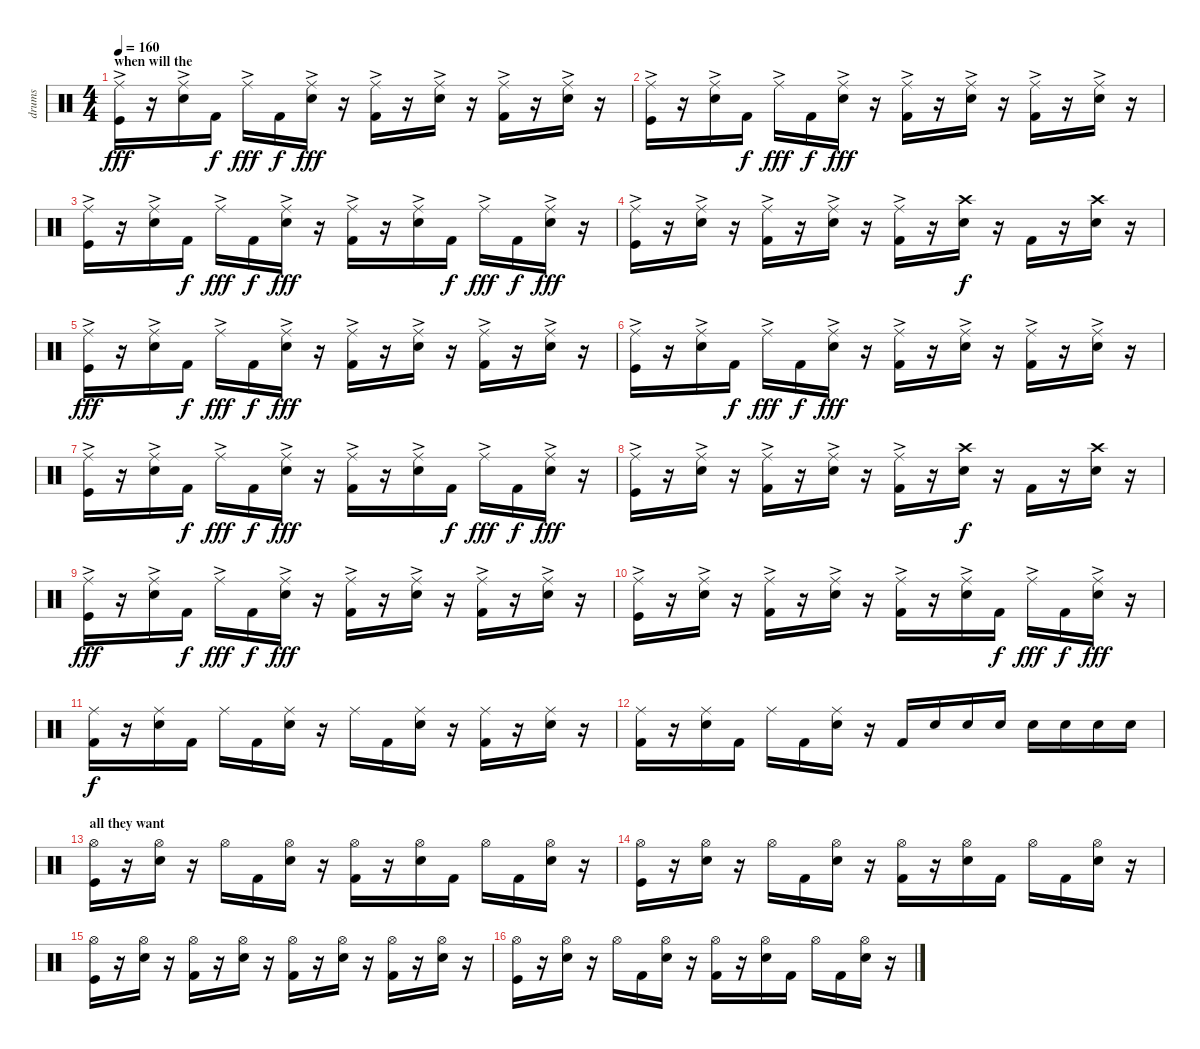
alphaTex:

\track ("drums" "drums") {instrument percussion}
\staff {score}
\articulation defaults
\ts (4 4)
\section ("" "when will the")
\tempo 160
\clef neutral
\ks c
("Ride (middle)"{ac} "Kick (hit)").16{dy fff} r.16 ("Ride (middle)"{ac} "Snare (hit) 2").16 "Kick (hit) 2".16{dy f} "Ride (middle)"{ac}.16{dy fff} "Kick (hit) 2".16{dy f} ("Ride (middle)"{ac} "Snare (hit) 2").16{dy fff} r.16 ("Ride (middle)"{ac} "Kick (hit) 2").16 r.16 ("Ride (middle)"{ac} "Snare (hit) 2").16 r.16 ("Ride (middle)"{ac} "Kick (hit) 2").16 r.16 ("Ride (middle)"{ac} "Snare (hit) 2").16 r.16 |
("Ride (middle)"{ac} "Kick (hit)").16 r.16 ("Ride (middle)"{ac} "Snare (hit) 2").16 "Kick (hit) 2".16{dy f} "Ride (middle)"{ac}.16{dy fff} "Kick (hit) 2".16{dy f} ("Ride (middle)"{ac} "Snare (hit) 2").16{dy fff} r.16 ("Ride (middle)"{ac} "Kick (hit) 2").16 r.16 ("Ride (middle)"{ac} "Snare (hit) 2").16 r.16 ("Ride (middle)"{ac} "Kick (hit) 2").16 r.16 ("Ride (middle)"{ac} "Snare (hit) 2").16 r.16 |
("Ride (middle)"{ac} "Kick (hit)").16 r.16 ("Ride (middle)"{ac} "Snare (hit) 2").16 "Kick (hit) 2".16{dy f} "Ride (middle)"{ac}.16{dy fff} "Kick (hit) 2".16{dy f} ("Ride (middle)"{ac} "Snare (hit) 2").16{dy fff} r.16 ("Ride (middle)"{ac} "Kick (hit) 2").16 r.16 ("Ride (middle)"{ac} "Snare (hit) 2").16 "Kick (hit) 2".16{dy f} "Ride (middle)"{ac}.16{dy fff} "Kick (hit) 2".16{dy f} ("Ride (middle)"{ac} "Snare (hit) 2").16{dy fff} r.16 |
("Ride (middle)"{ac} "Kick (hit)").16 r.16 ("Ride (middle)"{ac} "Snare (hit) 2").16 r.16 ("Ride (middle)"{ac} "Kick (hit) 2").16 r.16 ("Ride (middle)"{ac} "Snare (hit) 2").16 r.16 ("Ride (middle)"{ac} "Kick (hit) 2").16 r.16 ("Crash high (hit)" "Snare (hit) 2").16{dy f} r.16 "Kick (hit) 2".16 r.16 ("Crash high (hit)" "Snare (hit) 2").16 r.16 |
("Ride (middle)"{ac} "Kick (hit)").16{dy fff} r.16 ("Ride (middle)"{ac} "Snare (hit) 2").16 "Kick (hit) 2".16{dy f} "Ride (middle)"{ac}.16{dy fff} "Kick (hit) 2".16{dy f} ("Ride (middle)"{ac} "Snare (hit) 2").16{dy fff} r.16 ("Ride (middle)"{ac} "Kick (hit) 2").16 r.16 ("Ride (middle)"{ac} "Snare (hit) 2").16 r.16 ("Ride (middle)"{ac} "Kick (hit) 2").16 r.16 ("Ride (middle)"{ac} "Snare (hit) 2").16 r.16 |
("Ride (middle)"{ac} "Kick (hit)").16 r.16 ("Ride (middle)"{ac} "Snare (hit) 2").16 "Kick (hit) 2".16{dy f} "Ride (middle)"{ac}.16{dy fff} "Kick (hit) 2".16{dy f} ("Ride (middle)"{ac} "Snare (hit) 2").16{dy fff} r.16 ("Ride (middle)"{ac} "Kick (hit) 2").16 r.16 ("Ride (middle)"{ac} "Snare (hit) 2").16 r.16 ("Ride (middle)"{ac} "Kick (hit) 2").16 r.16 ("Ride (middle)"{ac} "Snare (hit) 2").16 r.16 |
("Ride (middle)"{ac} "Kick (hit)").16 r.16 ("Ride (middle)"{ac} "Snare (hit) 2").16 "Kick (hit) 2".16{dy f} "Ride (middle)"{ac}.16{dy fff} "Kick (hit) 2".16{dy f} ("Ride (middle)"{ac} "Snare (hit) 2").16{dy fff} r.16 ("Ride (middle)"{ac} "Kick (hit) 2").16 r.16 ("Ride (middle)"{ac} "Snare (hit) 2").16 "Kick (hit) 2".16{dy f} "Ride (middle)"{ac}.16{dy fff} "Kick (hit) 2".16{dy f} ("Ride (middle)"{ac} "Snare (hit) 2").16{dy fff} r.16 |
("Ride (middle)"{ac} "Kick (hit)").16 r.16 ("Ride (middle)"{ac} "Snare (hit) 2").16 r.16 ("Ride (middle)"{ac} "Kick (hit) 2").16 r.16 ("Ride (middle)"{ac} "Snare (hit) 2").16 r.16 ("Ride (middle)"{ac} "Kick (hit) 2").16 r.16 ("Crash high (hit)" "Snare (hit) 2").16{dy f} r.16 "Kick (hit) 2".16 r.16 ("Crash high (hit)" "Snare (hit) 2").16 r.16 |
("Ride (middle)"{ac} "Kick (hit)").16{dy fff} r.16 ("Ride (middle)"{ac} "Snare (hit) 2").16 "Kick (hit) 2".16{dy f} "Ride (middle)"{ac}.16{dy fff} "Kick (hit) 2".16{dy f} ("Ride (middle)"{ac} "Snare (hit) 2").16{dy fff} r.16 ("Ride (middle)"{ac} "Kick (hit) 2").16 r.16 ("Ride (middle)"{ac} "Snare (hit) 2").16 r.16 ("Ride (middle)"{ac} "Kick (hit) 2").16 r.16 ("Ride (middle)"{ac} "Snare (hit) 2").16 r.16 |
("Ride (middle)"{ac} "Kick (hit)").16 r.16 ("Ride (middle)"{ac} "Snare (hit) 2").16 r.16 ("Ride (middle)"{ac} "Kick (hit) 2").16 r.16 ("Ride (middle)"{ac} "Snare (hit) 2").16 r.16 ("Ride (middle)"{ac} "Kick (hit) 2").16 r.16 ("Ride (middle)"{ac} "Snare (hit) 2").16 "Kick (hit) 2".16{dy f} "Ride (middle)"{ac}.16{dy fff} "Kick (hit) 2".16{dy f} ("Ride (middle)"{ac} "Snare (hit) 2").16{dy fff} r.16 |
("Ride (middle)" "Kick (hit) 2").16{dy f} r.16 ("Ride (middle)" "Snare (hit) 2").16 "Kick (hit) 2".16 "Ride (middle)".16 "Kick (hit) 2".16 ("Ride (middle)" "Snare (hit) 2").16 r.16 "Ride (middle)".16 "Kick (hit) 2".16 ("Ride (middle)" "Snare (hit) 2").16 r.16 ("Ride (middle)" "Kick (hit) 2").16 r.16 ("Ride (middle)" "Snare (hit) 2").16 r.16 |
("Ride (middle)" "Kick (hit) 2").16 r.16 ("Ride (middle)" "Snare (hit) 2").16 "Kick (hit) 2".16 "Ride (middle)".16 "Kick (hit) 2".16 ("Ride (middle)" "Snare (hit) 2").16 r.16 "Kick (hit) 2".16 "Snare (hit) 2".16 "Snare (hit) 2".16 "Snare (hit) 2".16 "Snare (hit) 2".16 "Snare (hit) 2".16 "Snare (hit) 2".16 "Snare (hit) 2".16 |
\section ("" "all they want")
("Hi-Hat (open)" "Kick (hit)").16 r.16 ("Hi-Hat (open)" "Snare (hit) 2").16 r.16 "Hi-Hat (open)".16 "Kick (hit) 2".16 ("Hi-Hat (open)" "Snare (hit) 2").16 r.16 ("Hi-Hat (open)" "Kick (hit) 2").16 r.16 ("Hi-Hat (open)" "Snare (hit) 2").16 "Kick (hit) 2".16 "Hi-Hat (open)".16 "Kick (hit) 2".16 ("Hi-Hat (open)" "Snare (hit) 2").16 r.16 |
("Hi-Hat (open)" "Kick (hit)").16 r.16 ("Hi-Hat (open)" "Snare (hit) 2").16 r.16 "Hi-Hat (open)".16 "Kick (hit) 2".16 ("Hi-Hat (open)" "Snare (hit) 2").16 r.16 ("Hi-Hat (open)" "Kick (hit) 2").16 r.16 ("Hi-Hat (open)" "Snare (hit) 2").16 "Kick (hit) 2".16 "Hi-Hat (open)".16 "Kick (hit) 2".16 ("Hi-Hat (open)" "Snare (hit) 2").16 r.16 |
("Hi-Hat (open)" "Kick (hit)").16 r.16 ("Hi-Hat (open)" "Snare (hit) 2").16 r.16 ("Hi-Hat (open)" "Kick (hit) 2").16 r.16 ("Hi-Hat (open)" "Snare (hit) 2").16 r.16 ("Hi-Hat (open)" "Kick (hit) 2").16 r.16 ("Hi-Hat (open)" "Snare (hit) 2").16 r.16 ("Hi-Hat (open)" "Kick (hit) 2").16 r.16 ("Hi-Hat (open)" "Snare (hit) 2").16 r.16 |
("Hi-Hat (open)" "Kick (hit)").16 r.16 ("Hi-Hat (open)" "Snare (hit) 2").16 r.16 "Hi-Hat (open)".16 "Kick (hit) 2".16 ("Hi-Hat (open)" "Snare (hit) 2").16 r.16 ("Hi-Hat (open)" "Kick (hit) 2").16 r.16 ("Hi-Hat (open)" "Snare (hit) 2").16 "Kick (hit) 2".16 "Hi-Hat (open)".16 "Kick (hit) 2".16 ("Hi-Hat (open)" "Snare (hit) 2").16 r.16
